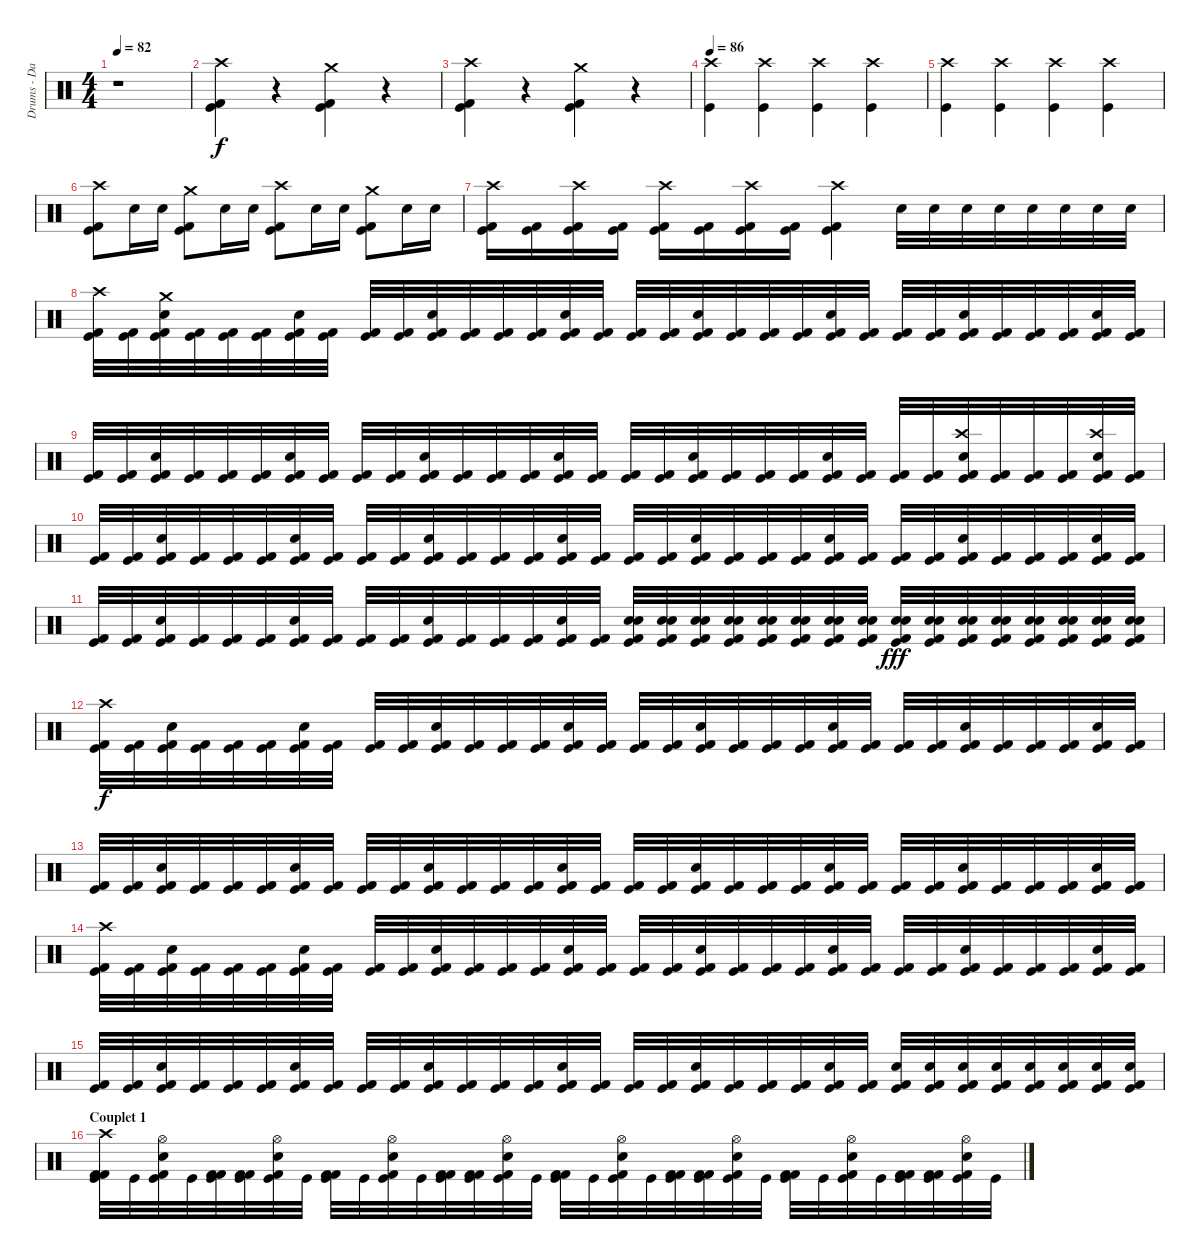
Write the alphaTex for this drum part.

\track ("Drums - Daniel Zimmermann" "Drums - Da") {instrument percussion}
\staff {score}
\articulation defaults
\ts (4 4)
\tempo 82
\clef neutral
\ks c
r.1{dy f} |
("Kick (hit)" "Kick (hit) 2" "Crash high (hit)").4 r.4 ("Kick (hit)" "Kick (hit) 2" "Crash medium (hit)").4 r.4 |
("Kick (hit)" "Kick (hit) 2" "Crash high (hit)").4 r.4 ("Kick (hit)" "Kick (hit) 2" "Crash medium (hit)").4 r.4 |
\tempo 86
("Kick (hit)" "Crash high (hit)").4 ("Kick (hit)" "Crash high (hit)").4 ("Kick (hit)" "Crash high (hit)").4 ("Kick (hit)" "Crash high (hit)").4 |
("Kick (hit)" "Crash high (hit)").4 ("Kick (hit)" "Crash high (hit)").4 ("Kick (hit)" "Crash high (hit)").4 ("Kick (hit)" "Crash high (hit)").4 |
("Kick (hit)" "Kick (hit) 2" "Crash high (hit)").8 "Electric Snare (hit)".16 "Electric Snare (hit)".16 ("Kick (hit)" "Kick (hit) 2" "Crash medium (hit)").8 "Electric Snare (hit)".16 "Electric Snare (hit)".16 ("Kick (hit)" "Kick (hit) 2" "Crash high (hit)").8 "Electric Snare (hit)".16 "Electric Snare (hit)".16 ("Kick (hit)" "Kick (hit) 2" "Crash medium (hit)").8 "Electric Snare (hit)".16 "Electric Snare (hit)".16 |
("Kick (hit)" "Kick (hit) 2" "Crash high (hit)").16 ("Kick (hit)" "Kick (hit) 2").16 ("Kick (hit)" "Kick (hit) 2" "Crash high (hit)").16 ("Kick (hit)" "Kick (hit) 2").16 ("Kick (hit)" "Kick (hit) 2" "Crash high (hit)").16 ("Kick (hit)" "Kick (hit) 2").16 ("Kick (hit)" "Kick (hit) 2" "Crash high (hit)").16 ("Kick (hit)" "Kick (hit) 2").16 ("Kick (hit)" "Kick (hit) 2" "Crash high (hit)").4 "Electric Snare (hit)".32 "Electric Snare (hit)".32 "Electric Snare (hit)".32 "Electric Snare (hit)".32 "Electric Snare (hit)".32 "Electric Snare (hit)".32 "Electric Snare (hit)".32 "Electric Snare (hit)".32 |
("Kick (hit)" "Kick (hit) 2" "Crash high (hit)").32 ("Kick (hit)" "Kick (hit) 2").32 ("Kick (hit)" "Kick (hit) 2" "Electric Snare (hit)" "Crash medium (hit)").32 ("Kick (hit)" "Kick (hit) 2").32 ("Kick (hit)" "Kick (hit) 2").32 ("Kick (hit)" "Kick (hit) 2").32 ("Kick (hit)" "Kick (hit) 2" "Electric Snare (hit)").32 ("Kick (hit)" "Kick (hit) 2").32 ("Kick (hit)" "Kick (hit) 2").32 ("Kick (hit)" "Kick (hit) 2").32 ("Kick (hit)" "Kick (hit) 2" "Electric Snare (hit)").32 ("Kick (hit)" "Kick (hit) 2").32 ("Kick (hit)" "Kick (hit) 2").32 ("Kick (hit)" "Kick (hit) 2").32 ("Kick (hit)" "Kick (hit) 2" "Electric Snare (hit)").32 ("Kick (hit)" "Kick (hit) 2").32 ("Kick (hit)" "Kick (hit) 2").32 ("Kick (hit)" "Kick (hit) 2").32 ("Kick (hit)" "Kick (hit) 2" "Electric Snare (hit)").32 ("Kick (hit)" "Kick (hit) 2").32 ("Kick (hit)" "Kick (hit) 2").32 ("Kick (hit)" "Kick (hit) 2").32 ("Kick (hit)" "Kick (hit) 2" "Electric Snare (hit)").32 ("Kick (hit)" "Kick (hit) 2").32 ("Kick (hit)" "Kick (hit) 2").32 ("Kick (hit)" "Kick (hit) 2").32 ("Kick (hit)" "Kick (hit) 2" "Electric Snare (hit)").32 ("Kick (hit)" "Kick (hit) 2").32 ("Kick (hit)" "Kick (hit) 2").32 ("Kick (hit)" "Kick (hit) 2").32 ("Kick (hit)" "Kick (hit) 2" "Electric Snare (hit)").32 ("Kick (hit)" "Kick (hit) 2").32 |
("Kick (hit)" "Kick (hit) 2").32 ("Kick (hit)" "Kick (hit) 2").32 ("Kick (hit)" "Kick (hit) 2" "Electric Snare (hit)").32 ("Kick (hit)" "Kick (hit) 2").32 ("Kick (hit)" "Kick (hit) 2").32 ("Kick (hit)" "Kick (hit) 2").32 ("Kick (hit)" "Kick (hit) 2" "Electric Snare (hit)").32 ("Kick (hit)" "Kick (hit) 2").32 ("Kick (hit)" "Kick (hit) 2").32 ("Kick (hit)" "Kick (hit) 2").32 ("Kick (hit)" "Kick (hit) 2" "Electric Snare (hit)").32 ("Kick (hit)" "Kick (hit) 2").32 ("Kick (hit)" "Kick (hit) 2").32 ("Kick (hit)" "Kick (hit) 2").32 ("Kick (hit)" "Kick (hit) 2" "Electric Snare (hit)").32 ("Kick (hit)" "Kick (hit) 2").32 ("Kick (hit)" "Kick (hit) 2").32 ("Kick (hit)" "Kick (hit) 2").32 ("Kick (hit)" "Kick (hit) 2" "Electric Snare (hit)").32 ("Kick (hit)" "Kick (hit) 2").32 ("Kick (hit)" "Kick (hit) 2").32 ("Kick (hit)" "Kick (hit) 2").32 ("Kick (hit)" "Kick (hit) 2" "Electric Snare (hit)").32 ("Kick (hit)" "Kick (hit) 2").32 ("Kick (hit)" "Kick (hit) 2").32 ("Kick (hit)" "Kick (hit) 2").32 ("Kick (hit)" "Kick (hit) 2" "Electric Snare (hit)" "Crash high (hit)").32 ("Kick (hit)" "Kick (hit) 2").32 ("Kick (hit)" "Kick (hit) 2").32 ("Kick (hit)" "Kick (hit) 2").32 ("Kick (hit)" "Kick (hit) 2" "Electric Snare (hit)" "Crash high (hit)").32 ("Kick (hit)" "Kick (hit) 2").32 |
("Kick (hit)" "Kick (hit) 2").32 ("Kick (hit)" "Kick (hit) 2").32 ("Kick (hit)" "Kick (hit) 2" "Electric Snare (hit)").32 ("Kick (hit)" "Kick (hit) 2").32 ("Kick (hit)" "Kick (hit) 2").32 ("Kick (hit)" "Kick (hit) 2").32 ("Kick (hit)" "Kick (hit) 2" "Electric Snare (hit)").32 ("Kick (hit)" "Kick (hit) 2").32 ("Kick (hit)" "Kick (hit) 2").32 ("Kick (hit)" "Kick (hit) 2").32 ("Kick (hit)" "Kick (hit) 2" "Electric Snare (hit)").32 ("Kick (hit)" "Kick (hit) 2").32 ("Kick (hit)" "Kick (hit) 2").32 ("Kick (hit)" "Kick (hit) 2").32 ("Kick (hit)" "Kick (hit) 2" "Electric Snare (hit)").32 ("Kick (hit)" "Kick (hit) 2").32 ("Kick (hit)" "Kick (hit) 2").32 ("Kick (hit)" "Kick (hit) 2").32 ("Kick (hit)" "Kick (hit) 2" "Electric Snare (hit)").32 ("Kick (hit)" "Kick (hit) 2").32 ("Kick (hit)" "Kick (hit) 2").32 ("Kick (hit)" "Kick (hit) 2").32 ("Kick (hit)" "Kick (hit) 2" "Electric Snare (hit)").32 ("Kick (hit)" "Kick (hit) 2").32 ("Kick (hit)" "Kick (hit) 2").32 ("Kick (hit)" "Kick (hit) 2").32 ("Kick (hit)" "Kick (hit) 2" "Electric Snare (hit)").32 ("Kick (hit)" "Kick (hit) 2").32 ("Kick (hit)" "Kick (hit) 2").32 ("Kick (hit)" "Kick (hit) 2").32 ("Kick (hit)" "Kick (hit) 2" "Electric Snare (hit)").32 ("Kick (hit)" "Kick (hit) 2").32 |
("Kick (hit)" "Kick (hit) 2").32 ("Kick (hit)" "Kick (hit) 2").32 ("Kick (hit)" "Kick (hit) 2" "Electric Snare (hit)").32 ("Kick (hit)" "Kick (hit) 2").32 ("Kick (hit)" "Kick (hit) 2").32 ("Kick (hit)" "Kick (hit) 2").32 ("Kick (hit)" "Kick (hit) 2" "Electric Snare (hit)").32 ("Kick (hit)" "Kick (hit) 2").32 ("Kick (hit)" "Kick (hit) 2").32 ("Kick (hit)" "Kick (hit) 2").32 ("Kick (hit)" "Kick (hit) 2" "Electric Snare (hit)").32 ("Kick (hit)" "Kick (hit) 2").32 ("Kick (hit)" "Kick (hit) 2").32 ("Kick (hit)" "Kick (hit) 2").32 ("Kick (hit)" "Kick (hit) 2" "Electric Snare (hit)").32 ("Kick (hit)" "Kick (hit) 2").32 ("Kick (hit)" "Kick (hit) 2" "Snare (hit) 2" "Electric Snare (hit)").32 ("Kick (hit)" "Kick (hit) 2" "Snare (hit) 2" "Electric Snare (hit)").32 ("Kick (hit)" "Kick (hit) 2" "Snare (hit) 2" "Electric Snare (hit)").32 ("Kick (hit)" "Kick (hit) 2" "Snare (hit) 2" "Electric Snare (hit)").32 ("Kick (hit)" "Kick (hit) 2" "Snare (hit) 2" "Electric Snare (hit)").32 ("Kick (hit)" "Kick (hit) 2" "Snare (hit) 2" "Electric Snare (hit)").32 ("Kick (hit)" "Kick (hit) 2" "Snare (hit) 2" "Electric Snare (hit)").32 ("Kick (hit)" "Kick (hit) 2" "Snare (hit) 2" "Electric Snare (hit)").32 ("Kick (hit)" "Kick (hit) 2" "Snare (hit) 2" "Electric Snare (hit)").32{dy fff} ("Kick (hit)" "Kick (hit) 2" "Snare (hit) 2" "Electric Snare (hit)").32 ("Kick (hit)" "Kick (hit) 2" "Snare (hit) 2" "Electric Snare (hit)").32 ("Kick (hit)" "Kick (hit) 2" "Snare (hit) 2" "Electric Snare (hit)").32 ("Kick (hit)" "Kick (hit) 2" "Snare (hit) 2" "Electric Snare (hit)").32 ("Kick (hit)" "Kick (hit) 2" "Snare (hit) 2" "Electric Snare (hit)").32 ("Kick (hit)" "Kick (hit) 2" "Snare (hit) 2" "Electric Snare (hit)").32 ("Kick (hit)" "Kick (hit) 2" "Snare (hit) 2" "Electric Snare (hit)").32 |
("Kick (hit)" "Kick (hit) 2" "Crash high (hit)").32{dy f} ("Kick (hit)" "Kick (hit) 2").32 ("Kick (hit)" "Kick (hit) 2" "Electric Snare (hit)").32 ("Kick (hit)" "Kick (hit) 2").32 ("Kick (hit)" "Kick (hit) 2").32 ("Kick (hit)" "Kick (hit) 2").32 ("Kick (hit)" "Kick (hit) 2" "Electric Snare (hit)").32 ("Kick (hit)" "Kick (hit) 2").32 ("Kick (hit)" "Kick (hit) 2").32 ("Kick (hit)" "Kick (hit) 2").32 ("Kick (hit)" "Kick (hit) 2" "Electric Snare (hit)").32 ("Kick (hit)" "Kick (hit) 2").32 ("Kick (hit)" "Kick (hit) 2").32 ("Kick (hit)" "Kick (hit) 2").32 ("Kick (hit)" "Kick (hit) 2" "Electric Snare (hit)").32 ("Kick (hit)" "Kick (hit) 2").32 ("Kick (hit)" "Kick (hit) 2").32 ("Kick (hit)" "Kick (hit) 2").32 ("Kick (hit)" "Kick (hit) 2" "Electric Snare (hit)").32 ("Kick (hit)" "Kick (hit) 2").32 ("Kick (hit)" "Kick (hit) 2").32 ("Kick (hit)" "Kick (hit) 2").32 ("Kick (hit)" "Kick (hit) 2" "Electric Snare (hit)").32 ("Kick (hit)" "Kick (hit) 2").32 ("Kick (hit)" "Kick (hit) 2").32 ("Kick (hit)" "Kick (hit) 2").32 ("Kick (hit)" "Kick (hit) 2" "Electric Snare (hit)").32 ("Kick (hit)" "Kick (hit) 2").32 ("Kick (hit)" "Kick (hit) 2").32 ("Kick (hit)" "Kick (hit) 2").32 ("Kick (hit)" "Kick (hit) 2" "Electric Snare (hit)").32 ("Kick (hit)" "Kick (hit) 2").32 |
("Kick (hit)" "Kick (hit) 2").32 ("Kick (hit)" "Kick (hit) 2").32 ("Kick (hit)" "Kick (hit) 2" "Electric Snare (hit)").32 ("Kick (hit)" "Kick (hit) 2").32 ("Kick (hit)" "Kick (hit) 2").32 ("Kick (hit)" "Kick (hit) 2").32 ("Kick (hit)" "Kick (hit) 2" "Electric Snare (hit)").32 ("Kick (hit)" "Kick (hit) 2").32 ("Kick (hit)" "Kick (hit) 2").32 ("Kick (hit)" "Kick (hit) 2").32 ("Kick (hit)" "Kick (hit) 2" "Electric Snare (hit)").32 ("Kick (hit)" "Kick (hit) 2").32 ("Kick (hit)" "Kick (hit) 2").32 ("Kick (hit)" "Kick (hit) 2").32 ("Kick (hit)" "Kick (hit) 2" "Electric Snare (hit)").32 ("Kick (hit)" "Kick (hit) 2").32 ("Kick (hit)" "Kick (hit) 2").32 ("Kick (hit)" "Kick (hit) 2").32 ("Kick (hit)" "Kick (hit) 2" "Electric Snare (hit)").32 ("Kick (hit)" "Kick (hit) 2").32 ("Kick (hit)" "Kick (hit) 2").32 ("Kick (hit)" "Kick (hit) 2").32 ("Kick (hit)" "Kick (hit) 2" "Electric Snare (hit)").32 ("Kick (hit)" "Kick (hit) 2").32 ("Kick (hit)" "Kick (hit) 2").32 ("Kick (hit)" "Kick (hit) 2").32 ("Kick (hit)" "Kick (hit) 2" "Electric Snare (hit)").32 ("Kick (hit)" "Kick (hit) 2").32 ("Kick (hit)" "Kick (hit) 2").32 ("Kick (hit)" "Kick (hit) 2").32 ("Kick (hit)" "Kick (hit) 2" "Electric Snare (hit)").32 ("Kick (hit)" "Kick (hit) 2").32 |
("Kick (hit)" "Kick (hit) 2" "Crash high (hit)").32 ("Kick (hit)" "Kick (hit) 2").32 ("Kick (hit)" "Kick (hit) 2" "Electric Snare (hit)").32 ("Kick (hit)" "Kick (hit) 2").32 ("Kick (hit)" "Kick (hit) 2").32 ("Kick (hit)" "Kick (hit) 2").32 ("Kick (hit)" "Kick (hit) 2" "Electric Snare (hit)").32 ("Kick (hit)" "Kick (hit) 2").32 ("Kick (hit)" "Kick (hit) 2").32 ("Kick (hit)" "Kick (hit) 2").32 ("Kick (hit)" "Kick (hit) 2" "Electric Snare (hit)").32 ("Kick (hit)" "Kick (hit) 2").32 ("Kick (hit)" "Kick (hit) 2").32 ("Kick (hit)" "Kick (hit) 2").32 ("Kick (hit)" "Kick (hit) 2" "Electric Snare (hit)").32 ("Kick (hit)" "Kick (hit) 2").32 ("Kick (hit)" "Kick (hit) 2").32 ("Kick (hit)" "Kick (hit) 2").32 ("Kick (hit)" "Kick (hit) 2" "Electric Snare (hit)").32 ("Kick (hit)" "Kick (hit) 2").32 ("Kick (hit)" "Kick (hit) 2").32 ("Kick (hit)" "Kick (hit) 2").32 ("Kick (hit)" "Kick (hit) 2" "Electric Snare (hit)").32 ("Kick (hit)" "Kick (hit) 2").32 ("Kick (hit)" "Kick (hit) 2").32 ("Kick (hit)" "Kick (hit) 2").32 ("Kick (hit)" "Kick (hit) 2" "Electric Snare (hit)").32 ("Kick (hit)" "Kick (hit) 2").32 ("Kick (hit)" "Kick (hit) 2").32 ("Kick (hit)" "Kick (hit) 2").32 ("Kick (hit)" "Kick (hit) 2" "Electric Snare (hit)").32 ("Kick (hit)" "Kick (hit) 2").32 |
("Kick (hit)" "Kick (hit) 2").32 ("Kick (hit)" "Kick (hit) 2").32 ("Kick (hit)" "Kick (hit) 2" "Electric Snare (hit)").32 ("Kick (hit)" "Kick (hit) 2").32 ("Kick (hit)" "Kick (hit) 2").32 ("Kick (hit)" "Kick (hit) 2").32 ("Kick (hit)" "Kick (hit) 2" "Electric Snare (hit)").32 ("Kick (hit)" "Kick (hit) 2").32 ("Kick (hit)" "Kick (hit) 2").32 ("Kick (hit)" "Kick (hit) 2").32 ("Kick (hit)" "Kick (hit) 2" "Electric Snare (hit)").32 ("Kick (hit)" "Kick (hit) 2").32 ("Kick (hit)" "Kick (hit) 2").32 ("Kick (hit)" "Kick (hit) 2").32 ("Kick (hit)" "Kick (hit) 2" "Electric Snare (hit)").32 ("Kick (hit)" "Kick (hit) 2").32 ("Kick (hit)" "Kick (hit) 2").32 ("Kick (hit)" "Kick (hit) 2").32 ("Kick (hit)" "Kick (hit) 2" "Electric Snare (hit)").32 ("Kick (hit)" "Kick (hit) 2").32 ("Kick (hit)" "Kick (hit) 2").32 ("Kick (hit)" "Kick (hit) 2").32 ("Kick (hit)" "Kick (hit) 2" "Electric Snare (hit)").32 ("Kick (hit)" "Kick (hit) 2").32 ("Kick (hit)" "Kick (hit) 2" "Electric Snare (hit)").32 ("Kick (hit)" "Kick (hit) 2" "Electric Snare (hit)").32 ("Kick (hit)" "Kick (hit) 2" "Electric Snare (hit)").32 ("Kick (hit)" "Kick (hit) 2" "Electric Snare (hit)").32 ("Kick (hit)" "Kick (hit) 2" "Electric Snare (hit)").32 ("Kick (hit)" "Kick (hit) 2" "Electric Snare (hit)").32 ("Kick (hit)" "Kick (hit) 2" "Electric Snare (hit)").32 ("Kick (hit)" "Kick (hit) 2" "Electric Snare (hit)").32 |
\section ("" "Couplet 1")
("Kick (hit)" "Kick (hit) 2" "Kick (hit) 2" "Crash high (hit)").32 "Kick (hit)".32 ("Kick (hit)" "Kick (hit) 2" "Electric Snare (hit)" "Hi-Hat (open)").32 "Kick (hit)".32 ("Kick (hit)" "Kick (hit) 2" "Kick (hit) 2").32 ("Kick (hit)" "Kick (hit) 2" "Kick (hit) 2").32 ("Kick (hit)" "Kick (hit) 2" "Electric Snare (hit)" "Hi-Hat (open)").32 "Kick (hit)".32 ("Kick (hit)" "Kick (hit) 2" "Kick (hit) 2").32 "Kick (hit)".32 ("Kick (hit)" "Kick (hit) 2" "Electric Snare (hit)" "Hi-Hat (open)").32 "Kick (hit)".32 ("Kick (hit)" "Kick (hit) 2" "Kick (hit) 2").32 ("Kick (hit)" "Kick (hit) 2" "Kick (hit) 2").32 ("Kick (hit)" "Kick (hit) 2" "Electric Snare (hit)" "Hi-Hat (open)").32 "Kick (hit)".32 ("Kick (hit)" "Kick (hit) 2" "Kick (hit) 2").32 "Kick (hit)".32 ("Kick (hit)" "Kick (hit) 2" "Electric Snare (hit)" "Hi-Hat (open)").32 "Kick (hit)".32 ("Kick (hit)" "Kick (hit) 2" "Kick (hit) 2").32 ("Kick (hit)" "Kick (hit) 2" "Kick (hit) 2").32 ("Kick (hit)" "Kick (hit) 2" "Electric Snare (hit)" "Hi-Hat (open)").32 "Kick (hit)".32 ("Kick (hit)" "Kick (hit) 2" "Kick (hit) 2").32 "Kick (hit)".32 ("Kick (hit)" "Kick (hit) 2" "Electric Snare (hit)" "Hi-Hat (open)").32 "Kick (hit)".32 ("Kick (hit)" "Kick (hit) 2" "Kick (hit) 2").32 ("Kick (hit)" "Kick (hit) 2" "Kick (hit) 2").32 ("Kick (hit)" "Kick (hit) 2" "Electric Snare (hit)" "Hi-Hat (open)").32 "Kick (hit)".32
